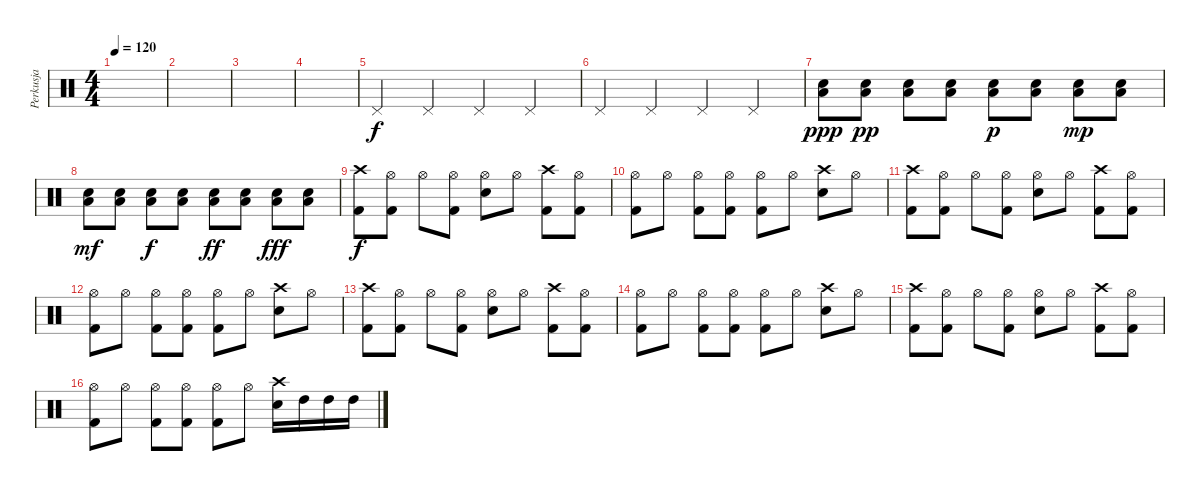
\track ("Perkusja" "Perkusja") {instrument percussion}
\staff {score}
\articulation defaults
\ts (4 4)
\tempo 120
\clef neutral
\ks c
|
|
|
|
"Pedal Hi-Hat (hit)".4 "Pedal Hi-Hat (hit)".4 "Pedal Hi-Hat (hit)".4 "Pedal Hi-Hat (hit)".4 |
"Pedal Hi-Hat (hit)".4 "Pedal Hi-Hat (hit)".4 "Pedal Hi-Hat (hit)".4 "Pedal Hi-Hat (hit)".4 |
("Electric Snare (hit)" "Low Floor Tom (hit)").8{dy ppp} ("Electric Snare (hit)" "Low Floor Tom (hit)").8{dy pp} ("Electric Snare (hit)" "Low Floor Tom (hit)").8 ("Electric Snare (hit)" "Low Floor Tom (hit)").8 ("Electric Snare (hit)" "Low Floor Tom (hit)").8{dy p} ("Electric Snare (hit)" "Low Floor Tom (hit)").8 ("Electric Snare (hit)" "Low Floor Tom (hit)").8{dy mp} ("Electric Snare (hit)" "Low Floor Tom (hit)").8 |
("Electric Snare (hit)" "Low Floor Tom (hit)").8{dy mf} ("Electric Snare (hit)" "Low Floor Tom (hit)").8 ("Electric Snare (hit)" "Low Floor Tom (hit)").8{dy f} ("Electric Snare (hit)" "Low Floor Tom (hit)").8 ("Electric Snare (hit)" "Low Floor Tom (hit)").8{dy ff} ("Electric Snare (hit)" "Low Floor Tom (hit)").8 ("Electric Snare (hit)" "Low Floor Tom (hit)").8{dy fff} ("Electric Snare (hit)" "Low Floor Tom (hit)").8 |
("Crash high (hit)" "Kick (hit) 2").8{dy f} ("Hi-Hat (open)" "Kick (hit) 2").8 "Hi-Hat (open)".8 ("Hi-Hat (open)" "Kick (hit) 2").8 ("Hi-Hat (open)" "Electric Snare (hit)").8 "Hi-Hat (open)".8 ("Crash high (hit)" "Kick (hit) 2").8 ("Hi-Hat (open)" "Kick (hit) 2").8 |
("Hi-Hat (open)" "Kick (hit) 2").8 "Hi-Hat (open)".8 ("Hi-Hat (open)" "Kick (hit) 2").8 ("Hi-Hat (open)" "Kick (hit) 2").8 ("Hi-Hat (open)" "Kick (hit) 2").8 "Hi-Hat (open)".8 ("Crash high (hit)" "Electric Snare (hit)").8 "Hi-Hat (open)".8 |
("Crash high (hit)" "Kick (hit) 2").8 ("Hi-Hat (open)" "Kick (hit) 2").8 "Hi-Hat (open)".8 ("Hi-Hat (open)" "Kick (hit) 2").8 ("Hi-Hat (open)" "Electric Snare (hit)").8 "Hi-Hat (open)".8 ("Crash high (hit)" "Kick (hit) 2").8 ("Hi-Hat (open)" "Kick (hit) 2").8 |
("Hi-Hat (open)" "Kick (hit) 2").8 "Hi-Hat (open)".8 ("Hi-Hat (open)" "Kick (hit) 2").8 ("Hi-Hat (open)" "Kick (hit) 2").8 ("Hi-Hat (open)" "Kick (hit) 2").8 "Hi-Hat (open)".8 ("Crash high (hit)" "Electric Snare (hit)").8 "Hi-Hat (open)".8 |
("Crash high (hit)" "Kick (hit) 2").8 ("Hi-Hat (open)" "Kick (hit) 2").8 "Hi-Hat (open)".8 ("Hi-Hat (open)" "Kick (hit) 2").8 ("Hi-Hat (open)" "Electric Snare (hit)").8 "Hi-Hat (open)".8 ("Crash high (hit)" "Kick (hit) 2").8 ("Hi-Hat (open)" "Kick (hit) 2").8 |
("Hi-Hat (open)" "Kick (hit) 2").8 "Hi-Hat (open)".8 ("Hi-Hat (open)" "Kick (hit) 2").8 ("Hi-Hat (open)" "Kick (hit) 2").8 ("Hi-Hat (open)" "Kick (hit) 2").8 "Hi-Hat (open)".8 ("Crash high (hit)" "Electric Snare (hit)").8 "Hi-Hat (open)".8 |
("Crash high (hit)" "Kick (hit) 2").8 ("Hi-Hat (open)" "Kick (hit) 2").8 "Hi-Hat (open)".8 ("Hi-Hat (open)" "Kick (hit) 2").8 ("Hi-Hat (open)" "Electric Snare (hit)").8 "Hi-Hat (open)".8 ("Crash high (hit)" "Kick (hit) 2").8 ("Hi-Hat (open)" "Kick (hit) 2").8 |
("Hi-Hat (open)" "Kick (hit) 2").8 "Hi-Hat (open)".8 ("Hi-Hat (open)" "Kick (hit) 2").8 ("Hi-Hat (open)" "Kick (hit) 2").8 ("Hi-Hat (open)" "Kick (hit) 2").8 "Hi-Hat (open)".8 ("Crash high (hit)" "Electric Snare (hit)").16 "High Tom (hit)".16 "High Tom (hit)".16 "High Tom (hit)".16
